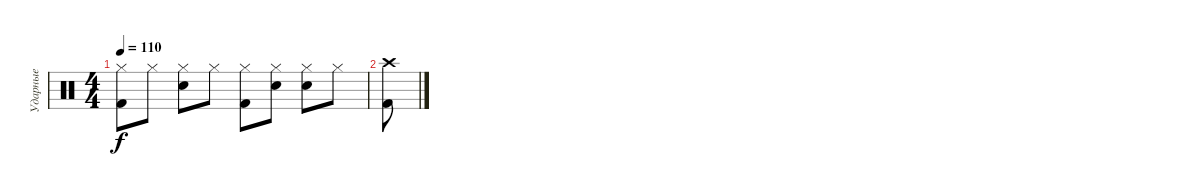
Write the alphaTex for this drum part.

\track ("Ударные" "Ударные") {instrument percussion}
\staff {score}
\articulation defaults
\ts (4 4)
\tempo 110
\clef neutral
\ks c
("Kick (hit) 2" "Hi-Hat (closed)").8{dy f} "Hi-Hat (closed)".8 ("Snare (hit) 2" "Hi-Hat (closed)").8 "Hi-Hat (closed)".8 ("Kick (hit) 2" "Hi-Hat (closed)").8 ("Snare (hit) 2" "Hi-Hat (closed)").8 ("Snare (hit) 2" "Hi-Hat (closed)").8 "Hi-Hat (closed)".8 |
("Kick (hit) 2" "Crash high (hit)").8
